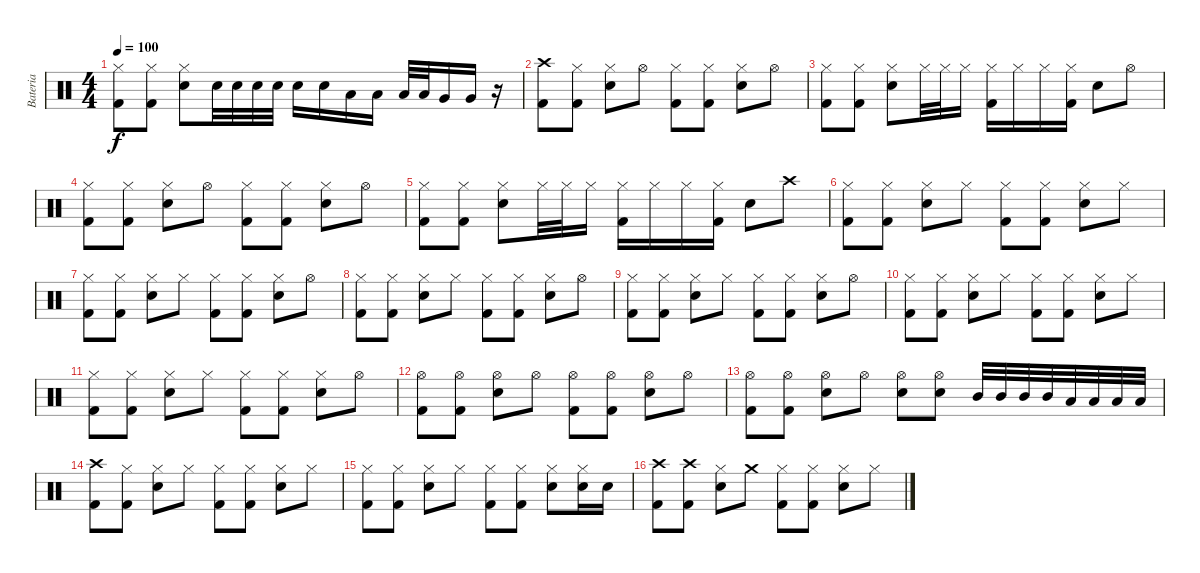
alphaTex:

\track ("Bateria" "Bateria") {instrument percussion}
\staff {score}
\articulation defaults
\ts (4 4)
\tempo 100
\clef neutral
\ks c
("Hi-Hat (closed)" "Kick (hit) 2").8{dy f} ("Hi-Hat (closed)" "Kick (hit) 2").8 ("Hi-Hat (closed)" "Snare (hit) 2").8 "Snare (hit) 2".32 "Snare (hit) 2".32 "Snare (hit) 2".32 "Snare (hit) 2".32 "Snare (hit) 2".16 "Snare (hit) 2".16 "Low Tom (hit)".16 "Low Tom (hit)".16 "Low Tom (hit)".32 "Low Tom (hit)".32 "Very Low Tom (hit)".16 "Very Low Tom (hit)".16 r.16 |
("Crash high (hit)" "Kick (hit) 2").8 ("Hi-Hat (closed)" "Kick (hit) 2").8 ("Hi-Hat (closed)" "Snare (hit) 2").8 "Hi-Hat (open)".8 ("Hi-Hat (closed)" "Kick (hit) 2").8 ("Hi-Hat (closed)" "Kick (hit) 2").8 ("Hi-Hat (closed)" "Snare (hit) 2").8 "Hi-Hat (open)".8 |
("Hi-Hat (closed)" "Kick (hit) 2").8 ("Hi-Hat (closed)" "Kick (hit) 2").8 ("Hi-Hat (closed)" "Snare (hit) 2").8 "Hi-Hat (closed)".32 "Hi-Hat (closed)".32 "Hi-Hat (closed)".16 ("Hi-Hat (closed)" "Kick (hit) 2").16 "Hi-Hat (closed)".16 "Hi-Hat (closed)".16 ("Hi-Hat (closed)" "Kick (hit) 2").16 "Snare (hit) 2".8 "Hi-Hat (open)".8 |
("Hi-Hat (closed)" "Kick (hit) 2").8 ("Hi-Hat (closed)" "Kick (hit) 2").8 ("Hi-Hat (closed)" "Snare (hit) 2").8 "Hi-Hat (open)".8 ("Hi-Hat (closed)" "Kick (hit) 2").8 ("Hi-Hat (closed)" "Kick (hit) 2").8 ("Hi-Hat (closed)" "Snare (hit) 2").8 "Hi-Hat (open)".8 |
("Hi-Hat (closed)" "Kick (hit) 2").8 ("Hi-Hat (closed)" "Kick (hit) 2").8 ("Hi-Hat (closed)" "Snare (hit) 2").8 "Hi-Hat (closed)".32 "Hi-Hat (closed)".32 "Hi-Hat (closed)".16 ("Hi-Hat (closed)" "Kick (hit) 2").16 "Hi-Hat (closed)".16 "Hi-Hat (closed)".16 ("Hi-Hat (closed)" "Kick (hit) 2").16 "Snare (hit) 2".8 "Crash high (hit)".8 |
("Hi-Hat (closed)" "Kick (hit) 2").8 ("Hi-Hat (closed)" "Kick (hit) 2").8 ("Hi-Hat (closed)" "Snare (hit) 2").8 "Hi-Hat (closed)".8 ("Hi-Hat (closed)" "Kick (hit) 2").8 ("Hi-Hat (closed)" "Kick (hit) 2").8 ("Hi-Hat (closed)" "Snare (hit) 2").8 "Hi-Hat (closed)".8 |
("Hi-Hat (closed)" "Kick (hit) 2").8 ("Hi-Hat (closed)" "Kick (hit) 2").8 ("Hi-Hat (closed)" "Snare (hit) 2").8 "Hi-Hat (closed)".8 ("Hi-Hat (closed)" "Kick (hit) 2").8 ("Hi-Hat (closed)" "Kick (hit) 2").8 ("Hi-Hat (closed)" "Snare (hit) 2").8 "Hi-Hat (open)".8 |
("Hi-Hat (closed)" "Kick (hit) 2").8 ("Hi-Hat (closed)" "Kick (hit) 2").8 ("Hi-Hat (closed)" "Snare (hit) 2").8 "Hi-Hat (closed)".8 ("Hi-Hat (closed)" "Kick (hit) 2").8 ("Hi-Hat (closed)" "Kick (hit) 2").8 ("Hi-Hat (closed)" "Snare (hit) 2").8 "Hi-Hat (open)".8 |
("Hi-Hat (closed)" "Kick (hit) 2").8 ("Hi-Hat (closed)" "Kick (hit) 2").8 ("Hi-Hat (closed)" "Snare (hit) 2").8 "Hi-Hat (closed)".8 ("Hi-Hat (closed)" "Kick (hit) 2").8 ("Hi-Hat (closed)" "Kick (hit) 2").8 ("Hi-Hat (closed)" "Snare (hit) 2").8 "Hi-Hat (open)".8 |
("Hi-Hat (closed)" "Kick (hit) 2").8 ("Hi-Hat (closed)" "Kick (hit) 2").8 ("Hi-Hat (closed)" "Snare (hit) 2").8 "Hi-Hat (closed)".8 ("Hi-Hat (closed)" "Kick (hit) 2").8 ("Hi-Hat (closed)" "Kick (hit) 2").8 ("Hi-Hat (closed)" "Snare (hit) 2").8 "Hi-Hat (closed)".8 |
("Hi-Hat (closed)" "Kick (hit) 2").8 ("Hi-Hat (closed)" "Kick (hit) 2").8 ("Hi-Hat (closed)" "Snare (hit) 2").8 "Hi-Hat (closed)".8 ("Hi-Hat (closed)" "Kick (hit) 2").8 ("Hi-Hat (closed)" "Kick (hit) 2").8 ("Hi-Hat (closed)" "Snare (hit) 2").8 "Hi-Hat (open)".8 |
("Hi-Hat (open)" "Kick (hit) 2").8 ("Hi-Hat (open)" "Kick (hit) 2").8 ("Hi-Hat (open)" "Snare (hit) 2").8 "Hi-Hat (open)".8 ("Hi-Hat (open)" "Kick (hit) 2").8 ("Hi-Hat (open)" "Kick (hit) 2").8 ("Hi-Hat (open)" "Snare (hit) 2").8 "Hi-Hat (open)".8 |
("Hi-Hat (open)" "Kick (hit) 2").8 ("Hi-Hat (open)" "Kick (hit) 2").8 ("Hi-Hat (open)" "Snare (hit) 2").8 "Hi-Hat (open)".8 ("Hi-Hat (open)" "Snare (hit) 2").8 ("Hi-Hat (open)" "Snare (hit) 2").8 "Mid Tom (hit)".32 "Mid Tom (hit)".32 "Mid Tom (hit)".32 "Mid Tom (hit)".32 "Low Tom (hit)".32 "Low Tom (hit)".32 "Low Tom (hit)".32 "Low Tom (hit)".32 |
("Crash high (hit)" "Kick (hit) 2").8 ("Hi-Hat (closed)" "Kick (hit) 2").8 ("Hi-Hat (closed)" "Snare (hit) 2").8 "Hi-Hat (closed)".8 ("Hi-Hat (closed)" "Kick (hit) 2").8 ("Hi-Hat (closed)" "Kick (hit) 2").8 ("Hi-Hat (closed)" "Snare (hit) 2").8 "Hi-Hat (closed)".8 |
("Hi-Hat (closed)" "Kick (hit) 2").8 ("Hi-Hat (closed)" "Kick (hit) 2").8 ("Hi-Hat (closed)" "Snare (hit) 2").8 "Hi-Hat (closed)".8 ("Hi-Hat (closed)" "Kick (hit) 2").8 ("Hi-Hat (closed)" "Kick (hit) 2").8 ("Hi-Hat (closed)" "Snare (hit) 2").8 ("Hi-Hat (closed)" "Snare (hit) 2").16 "Snare (hit) 2".16 |
("Crash high (hit)" "Kick (hit) 2").8 ("Crash high (hit)" "Kick (hit) 2").8 ("Hi-Hat (closed)" "Snare (hit) 2").8 "Crash medium (hit)".8 ("Hi-Hat (closed)" "Kick (hit) 2").8 ("Hi-Hat (closed)" "Kick (hit) 2").8 ("Hi-Hat (closed)" "Snare (hit) 2").8 "Hi-Hat (closed)".8
